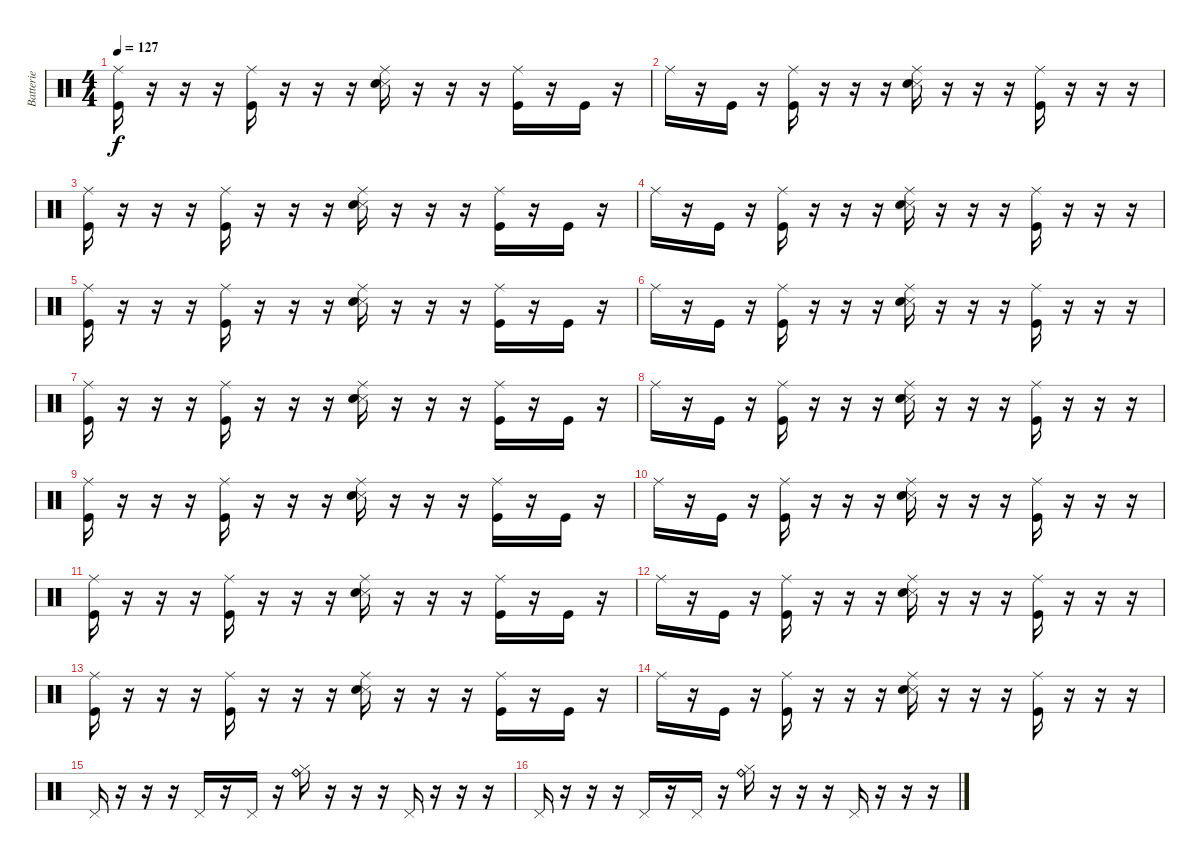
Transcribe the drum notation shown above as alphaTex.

\track ("Batterie" "Batterie") {instrument percussion}
\staff {score}
\articulation defaults
\ts (4 4)
\tempo 127
\clef neutral
\ks c
("Ride (middle)" "Kick (hit)").16{dy f} r.16 r.16 r.16 ("Ride (middle)" "Kick (hit)").16 r.16 r.16 r.16 ("Ride (middle)" "Snare (side stick) 3" "Electric Snare (hit)").16 r.16 r.16 r.16 ("Ride (middle)" "Kick (hit)").16 r.16 "Kick (hit)".16 r.16 |
"Ride (middle)".16 r.16 "Kick (hit)".16 r.16 ("Ride (middle)" "Kick (hit)").16 r.16 r.16 r.16 ("Ride (middle)" "Snare (side stick) 3" "Electric Snare (hit)").16 r.16 r.16 r.16 ("Ride (middle)" "Kick (hit)").16 r.16 r.16 r.16 |
("Ride (middle)" "Kick (hit)").16 r.16 r.16 r.16 ("Ride (middle)" "Kick (hit)").16 r.16 r.16 r.16 ("Ride (middle)" "Snare (side stick) 3" "Electric Snare (hit)").16 r.16 r.16 r.16 ("Ride (middle)" "Kick (hit)").16 r.16 "Kick (hit)".16 r.16 |
"Ride (middle)".16 r.16 "Kick (hit)".16 r.16 ("Ride (middle)" "Kick (hit)").16 r.16 r.16 r.16 ("Ride (middle)" "Snare (side stick) 3" "Electric Snare (hit)").16 r.16 r.16 r.16 ("Ride (middle)" "Kick (hit)").16 r.16 r.16 r.16 |
("Ride (middle)" "Kick (hit)").16 r.16 r.16 r.16 ("Ride (middle)" "Kick (hit)").16 r.16 r.16 r.16 ("Ride (middle)" "Snare (side stick) 3" "Electric Snare (hit)").16 r.16 r.16 r.16 ("Ride (middle)" "Kick (hit)").16 r.16 "Kick (hit)".16 r.16 |
"Ride (middle)".16 r.16 "Kick (hit)".16 r.16 ("Ride (middle)" "Kick (hit)").16 r.16 r.16 r.16 ("Ride (middle)" "Snare (side stick) 3" "Electric Snare (hit)").16 r.16 r.16 r.16 ("Ride (middle)" "Kick (hit)").16 r.16 r.16 r.16 |
("Ride (middle)" "Kick (hit)").16 r.16 r.16 r.16 ("Ride (middle)" "Kick (hit)").16 r.16 r.16 r.16 ("Ride (middle)" "Snare (side stick) 3" "Electric Snare (hit)").16 r.16 r.16 r.16 ("Ride (middle)" "Kick (hit)").16 r.16 "Kick (hit)".16 r.16 |
"Ride (middle)".16 r.16 "Kick (hit)".16 r.16 ("Ride (middle)" "Kick (hit)").16 r.16 r.16 r.16 ("Ride (middle)" "Snare (side stick) 3" "Electric Snare (hit)").16 r.16 r.16 r.16 ("Ride (middle)" "Kick (hit)").16 r.16 r.16 r.16 |
("Ride (middle)" "Kick (hit)").16 r.16 r.16 r.16 ("Ride (middle)" "Kick (hit)").16 r.16 r.16 r.16 ("Ride (middle)" "Snare (side stick) 3" "Electric Snare (hit)").16 r.16 r.16 r.16 ("Ride (middle)" "Kick (hit)").16 r.16 "Kick (hit)".16 r.16 |
"Ride (middle)".16 r.16 "Kick (hit)".16 r.16 ("Ride (middle)" "Kick (hit)").16 r.16 r.16 r.16 ("Ride (middle)" "Snare (side stick) 3" "Electric Snare (hit)").16 r.16 r.16 r.16 ("Ride (middle)" "Kick (hit)").16 r.16 r.16 r.16 |
("Ride (middle)" "Kick (hit)").16 r.16 r.16 r.16 ("Ride (middle)" "Kick (hit)").16 r.16 r.16 r.16 ("Ride (middle)" "Snare (side stick) 3" "Electric Snare (hit)").16 r.16 r.16 r.16 ("Ride (middle)" "Kick (hit)").16 r.16 "Kick (hit)".16 r.16 |
"Ride (middle)".16 r.16 "Kick (hit)".16 r.16 ("Ride (middle)" "Kick (hit)").16 r.16 r.16 r.16 ("Ride (middle)" "Snare (side stick) 3" "Electric Snare (hit)").16 r.16 r.16 r.16 ("Ride (middle)" "Kick (hit)").16 r.16 r.16 r.16 |
("Ride (middle)" "Kick (hit)").16 r.16 r.16 r.16 ("Ride (middle)" "Kick (hit)").16 r.16 r.16 r.16 ("Ride (middle)" "Snare (side stick) 3" "Electric Snare (hit)").16 r.16 r.16 r.16 ("Ride (middle)" "Kick (hit)").16 r.16 "Kick (hit)".16 r.16 |
"Ride (middle)".16 r.16 "Kick (hit)".16 r.16 ("Ride (middle)" "Kick (hit)").16 r.16 r.16 r.16 ("Ride (middle)" "Snare (side stick) 3" "Electric Snare (hit)").16 r.16 r.16 r.16 ("Ride (middle)" "Kick (hit)").16 r.16 r.16 r.16 |
"Pedal Hi-Hat (hit)".16 r.16 r.16 r.16 "Pedal Hi-Hat (hit)".16 r.16 "Pedal Hi-Hat (hit)".16 r.16 ("Hi-Hat (closed)" "Ride (bell)" "Ride (bell)").16 r.16 r.16 r.16 "Pedal Hi-Hat (hit)".16 r.16 r.16 r.16 |
"Pedal Hi-Hat (hit)".16 r.16 r.16 r.16 "Pedal Hi-Hat (hit)".16 r.16 "Pedal Hi-Hat (hit)".16 r.16 ("Hi-Hat (closed)" "Ride (bell)" "Ride (bell)").16 r.16 r.16 r.16 "Pedal Hi-Hat (hit)".16 r.16 r.16 r.16
